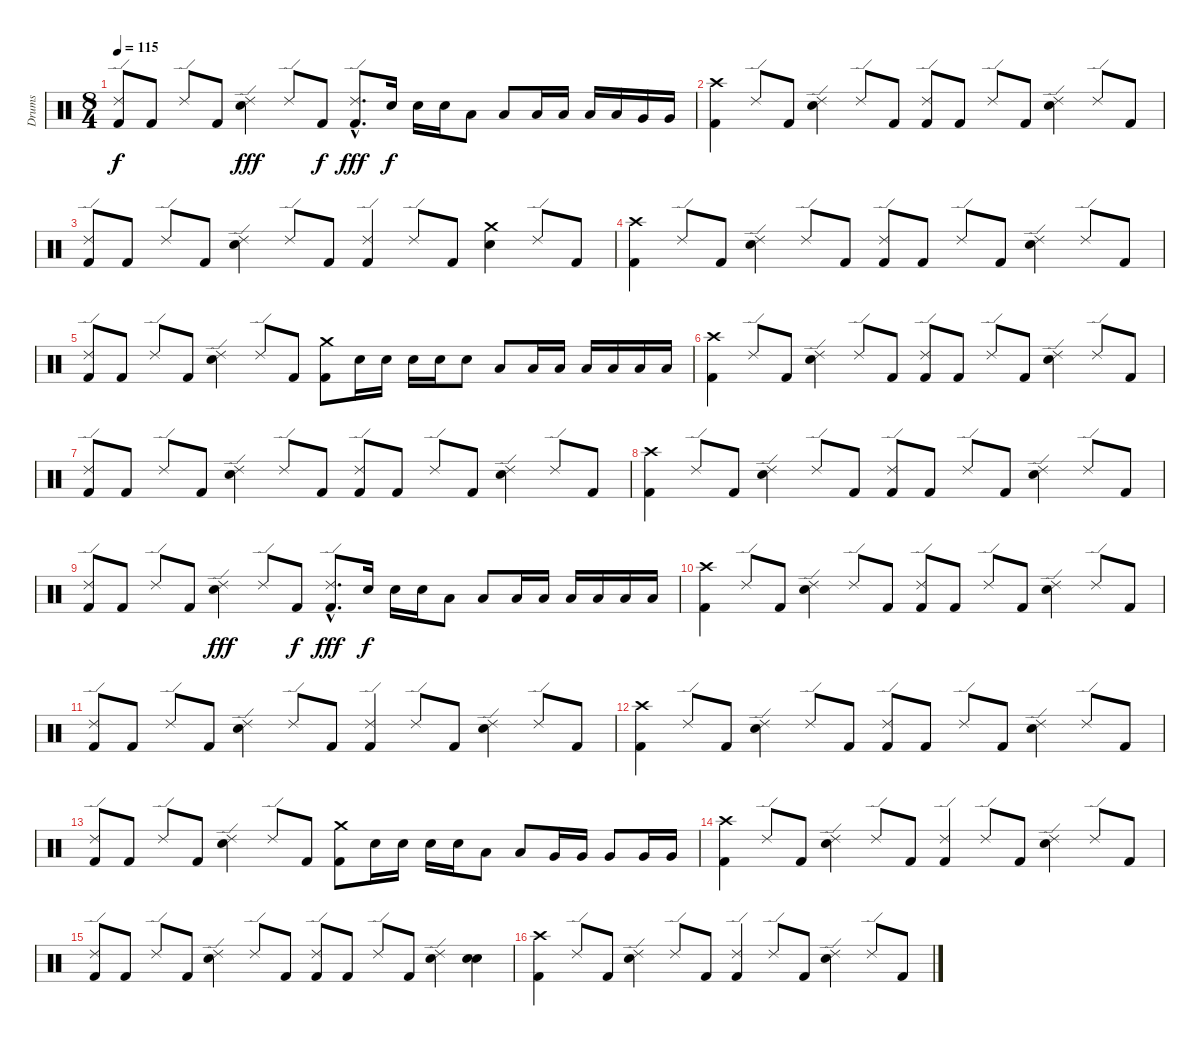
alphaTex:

\track ("Drums" "Drums") {instrument percussion}
\staff {score}
\articulation defaults
\ts (8 4)
\tempo 115
\clef neutral
\ks c
("Ride (edge) 2" "Kick (hit) 2").8{dy f} "Kick (hit) 2".8 "Ride (edge) 2".8 "Kick (hit) 2".8 ("Ride (edge) 2" "Electric Snare (hit)").4{dy fff} "Ride (edge) 2".8 "Kick (hit) 2".8{dy f} ("Ride (edge) 2"{hac} "Kick (hit) 2"{hac}).8{d dy fff} "Electric Snare (hit)".16{dy f} "Electric Snare (hit)".16 "Electric Snare (hit)".16 "Low Tom (hit)".8 "Low Tom (hit)".8 "Low Tom (hit)".16 "Low Tom (hit)".16 "Low Tom (hit)".16 "Low Tom (hit)".16 "Very Low Tom (hit)".16 "Very Low Tom (hit)".16 |
("Crash high (hit)" "Kick (hit) 2").4 "Ride (edge) 2".8 "Kick (hit) 2".8 ("Ride (edge) 2" "Electric Snare (hit)").4 "Ride (edge) 2".8 "Kick (hit) 2".8 ("Ride (edge) 2" "Kick (hit) 2").8 "Kick (hit) 2".8 "Ride (edge) 2".8 "Kick (hit) 2".8 ("Ride (edge) 2" "Electric Snare (hit)").4 "Ride (edge) 2".8 "Kick (hit) 2".8 |
("Ride (edge) 2" "Kick (hit) 2").8 "Kick (hit) 2".8 "Ride (edge) 2".8 "Kick (hit) 2".8 ("Ride (edge) 2" "Electric Snare (hit)").4 "Ride (edge) 2".8 "Kick (hit) 2".8 ("Ride (edge) 2" "Kick (hit) 2").4 "Ride (edge) 2".8 "Kick (hit) 2".8 ("Crash medium (hit)" "Electric Snare (hit)").4 "Ride (edge) 2".8 "Kick (hit) 2".8 |
("Crash high (hit)" "Kick (hit) 2").4 "Ride (edge) 2".8 "Kick (hit) 2".8 ("Ride (edge) 2" "Electric Snare (hit)").4 "Ride (edge) 2".8 "Kick (hit) 2".8 ("Ride (edge) 2" "Kick (hit) 2").8 "Kick (hit) 2".8 "Ride (edge) 2".8 "Kick (hit) 2".8 ("Ride (edge) 2" "Electric Snare (hit)").4 "Ride (edge) 2".8 "Kick (hit) 2".8 |
("Ride (edge) 2" "Kick (hit) 2").8 "Kick (hit) 2".8 "Ride (edge) 2".8 "Kick (hit) 2".8 ("Ride (edge) 2" "Electric Snare (hit)").4 "Ride (edge) 2".8 "Kick (hit) 2".8 ("Crash medium (hit)" "Kick (hit) 2").8 "Electric Snare (hit)".16 "Electric Snare (hit)".16 "Electric Snare (hit)".16 "Electric Snare (hit)".16 "Electric Snare (hit)".8 "Low Tom (hit)".8 "Low Tom (hit)".16 "Low Tom (hit)".16 "Low Tom (hit)".16 "Low Tom (hit)".16 "Low Tom (hit)".16 "Low Tom (hit)".16 |
("Crash high (hit)" "Kick (hit) 2").4 "Ride (edge) 2".8 "Kick (hit) 2".8 ("Ride (edge) 2" "Electric Snare (hit)").4 "Ride (edge) 2".8 "Kick (hit) 2".8 ("Ride (edge) 2" "Kick (hit) 2").8 "Kick (hit) 2".8 "Ride (edge) 2".8 "Kick (hit) 2".8 ("Ride (edge) 2" "Electric Snare (hit)").4 "Ride (edge) 2".8 "Kick (hit) 2".8 |
("Ride (edge) 2" "Kick (hit) 2").8 "Kick (hit) 2".8 "Ride (edge) 2".8 "Kick (hit) 2".8 ("Ride (edge) 2" "Electric Snare (hit)").4 "Ride (edge) 2".8 "Kick (hit) 2".8 ("Ride (edge) 2" "Kick (hit) 2").8 "Kick (hit) 2".8 "Ride (edge) 2".8 "Kick (hit) 2".8 ("Ride (edge) 2" "Electric Snare (hit)").4 "Ride (edge) 2".8 "Kick (hit) 2".8 |
("Crash high (hit)" "Kick (hit) 2").4 "Ride (edge) 2".8 "Kick (hit) 2".8 ("Ride (edge) 2" "Electric Snare (hit)").4 "Ride (edge) 2".8 "Kick (hit) 2".8 ("Ride (edge) 2" "Kick (hit) 2").8 "Kick (hit) 2".8 "Ride (edge) 2".8 "Kick (hit) 2".8 ("Ride (edge) 2" "Electric Snare (hit)").4 "Ride (edge) 2".8 "Kick (hit) 2".8 |
("Ride (edge) 2" "Kick (hit) 2").8 "Kick (hit) 2".8 "Ride (edge) 2".8 "Kick (hit) 2".8 ("Ride (edge) 2" "Electric Snare (hit)").4{dy fff} "Ride (edge) 2".8 "Kick (hit) 2".8{dy f} ("Ride (edge) 2"{hac} "Kick (hit) 2"{hac}).8{d dy fff} "Electric Snare (hit)".16{dy f} "Electric Snare (hit)".16 "Electric Snare (hit)".16 "Low Tom (hit)".8 "Low Tom (hit)".8 "Low Tom (hit)".16 "Low Tom (hit)".16 "Low Tom (hit)".16 "Low Tom (hit)".16 "Low Tom (hit)".16 "Low Tom (hit)".16 |
("Crash high (hit)" "Kick (hit) 2").4 "Ride (edge) 2".8 "Kick (hit) 2".8 ("Ride (edge) 2" "Electric Snare (hit)").4 "Ride (edge) 2".8 "Kick (hit) 2".8 ("Ride (edge) 2" "Kick (hit) 2").8 "Kick (hit) 2".8 "Ride (edge) 2".8 "Kick (hit) 2".8 ("Ride (edge) 2" "Electric Snare (hit)").4 "Ride (edge) 2".8 "Kick (hit) 2".8 |
("Ride (edge) 2" "Kick (hit) 2").8 "Kick (hit) 2".8 "Ride (edge) 2".8 "Kick (hit) 2".8 ("Ride (edge) 2" "Electric Snare (hit)").4 "Ride (edge) 2".8 "Kick (hit) 2".8 ("Ride (edge) 2" "Kick (hit) 2").4 "Ride (edge) 2".8 "Kick (hit) 2".8 ("Ride (edge) 2" "Electric Snare (hit)").4 "Ride (edge) 2".8 "Kick (hit) 2".8 |
("Crash high (hit)" "Kick (hit) 2").4 "Ride (edge) 2".8 "Kick (hit) 2".8 ("Ride (edge) 2" "Electric Snare (hit)").4 "Ride (edge) 2".8 "Kick (hit) 2".8 ("Ride (edge) 2" "Kick (hit) 2").8 "Kick (hit) 2".8 "Ride (edge) 2".8 "Kick (hit) 2".8 ("Ride (edge) 2" "Electric Snare (hit)").4 "Ride (edge) 2".8 "Kick (hit) 2".8 |
("Ride (edge) 2" "Kick (hit) 2").8 "Kick (hit) 2".8 "Ride (edge) 2".8 "Kick (hit) 2".8 ("Ride (edge) 2" "Electric Snare (hit)").4 "Ride (edge) 2".8 "Kick (hit) 2".8 ("Crash medium (hit)" "Kick (hit) 2").8 "Electric Snare (hit)".16 "Electric Snare (hit)".16 "Electric Snare (hit)".16 "Electric Snare (hit)".16 "Low Tom (hit)".8 "Low Tom (hit)".8 "Very Low Tom (hit)".16 "Very Low Tom (hit)".16 "Very Low Tom (hit)".8 "Very Low Tom (hit)".16 "Very Low Tom (hit)".16 |
("Crash high (hit)" "Kick (hit) 2").4 "Ride (edge) 2".8 "Kick (hit) 2".8 ("Ride (edge) 2" "Electric Snare (hit)").4 "Ride (edge) 2".8 "Kick (hit) 2".8 ("Ride (edge) 2" "Kick (hit) 2").4 "Ride (edge) 2".8 "Kick (hit) 2".8 ("Ride (edge) 2" "Electric Snare (hit)").4 "Ride (edge) 2".8 "Kick (hit) 2".8 |
("Ride (edge) 2" "Kick (hit) 2").8 "Kick (hit) 2".8 "Ride (edge) 2".8 "Kick (hit) 2".8 ("Ride (edge) 2" "Electric Snare (hit)").4 "Ride (edge) 2".8 "Kick (hit) 2".8 ("Ride (edge) 2" "Kick (hit) 2").8 "Kick (hit) 2".8 "Ride (edge) 2".8 "Kick (hit) 2".8 ("Ride (edge) 2" "Electric Snare (hit)").4 ("Electric Snare (hit)" "Electric Snare (hit)").4{bu 60} |
("Crash high (hit)" "Kick (hit) 2").4 "Ride (edge) 2".8 "Kick (hit) 2".8 ("Ride (edge) 2" "Electric Snare (hit)").4 "Ride (edge) 2".8 "Kick (hit) 2".8 ("Ride (edge) 2" "Kick (hit) 2").4 "Ride (edge) 2".8 "Kick (hit) 2".8 ("Ride (edge) 2" "Electric Snare (hit)").4 "Ride (edge) 2".8 "Kick (hit) 2".8
